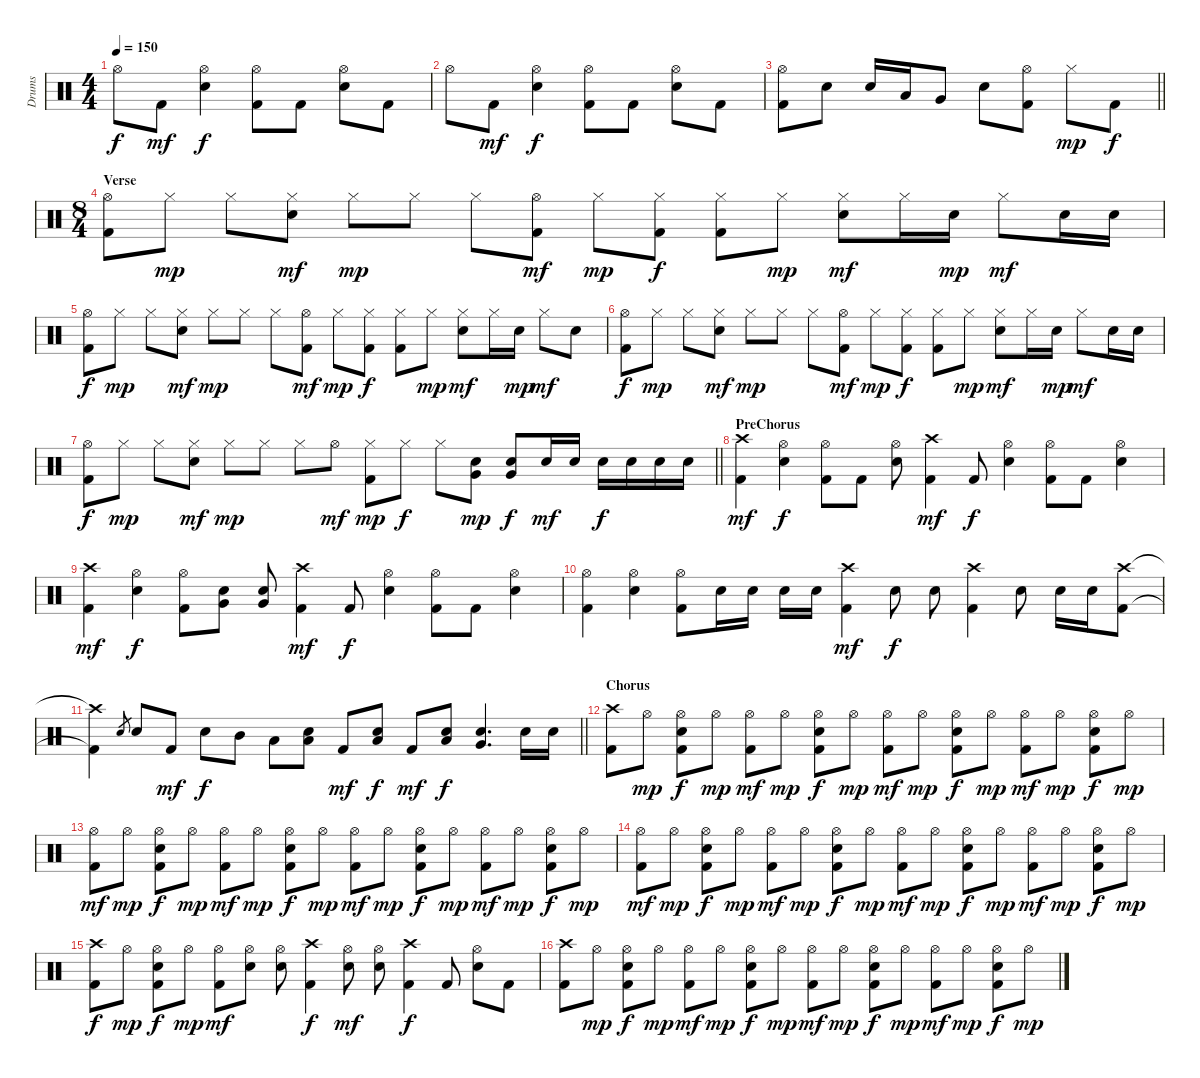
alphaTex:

\track ("Drums" "Drums") {instrument percussion}
\staff {score}
\articulation defaults
\ts (4 4)
\tempo 150
\clef neutral
\ks c "Hi-Hat (open)".8{dy f} "Kick (hit) 2".8{dy mf}
("Hi-Hat (open)" "Electric Snare (hit)").4{dy f} ("Hi-Hat (open)" "Kick (hit) 2").8 "Kick (hit) 2".8 ("Hi-Hat (open)" "Electric Snare (hit)").8 "Kick (hit) 2".8 |
"Hi-Hat (open)".8 "Kick (hit) 2".8{dy mf} ("Hi-Hat (open)" "Electric Snare (hit)").4{dy f} ("Hi-Hat (open)" "Kick (hit) 2").8 "Kick (hit) 2".8 ("Hi-Hat (open)" "Electric Snare (hit)").8 "Kick (hit) 2".8 |
\barLineRight lightlight
("Hi-Hat (open)" "Kick (hit) 2").8 "Electric Snare (hit)".8 "Electric Snare (hit)".16 "Low Tom (hit)".16 "Very Low Tom (hit)".8 "Electric Snare (hit)".8 ("Hi-Hat (open)" "Kick (hit) 2").8 "Hi-Hat (closed)".8{dy mp} "Kick (hit) 2".8{dy f} |
\ts (8 4)
\section ("" "Verse")
("Hi-Hat (open)" "Kick (hit) 2").8 "Hi-Hat (closed)".8{dy mp} "Hi-Hat (closed)".8 ("Hi-Hat (closed)" "Electric Snare (hit)").8{dy mf} "Hi-Hat (closed)".8{dy mp} "Hi-Hat (closed)".8 "Hi-Hat (closed)".8 ("Hi-Hat (open)" "Kick (hit) 2").8{dy mf} "Hi-Hat (closed)".8{dy mp} ("Hi-Hat (closed)" "Kick (hit) 2").8{dy f} ("Hi-Hat (closed)" "Kick (hit) 2").8 "Hi-Hat (closed)".8{dy mp} ("Hi-Hat (closed)" "Electric Snare (hit)").8{dy mf} "Hi-Hat (closed)".16 "Electric Snare (hit)".16{dy mp} "Hi-Hat (closed)".8{dy mf} "Electric Snare (hit)".16 "Electric Snare (hit)".16 |
("Hi-Hat (open)" "Kick (hit) 2").8{dy f} "Hi-Hat (closed)".8{dy mp} "Hi-Hat (closed)".8 ("Hi-Hat (closed)" "Electric Snare (hit)").8{dy mf} "Hi-Hat (closed)".8{dy mp} "Hi-Hat (closed)".8 "Hi-Hat (closed)".8 ("Hi-Hat (open)" "Kick (hit) 2").8{dy mf} "Hi-Hat (closed)".8{dy mp} ("Hi-Hat (closed)" "Kick (hit) 2").8{dy f} ("Hi-Hat (closed)" "Kick (hit) 2").8 "Hi-Hat (closed)".8{dy mp} ("Hi-Hat (closed)" "Electric Snare (hit)").8{dy mf} "Hi-Hat (closed)".16 "Electric Snare (hit)".16{dy mp} "Hi-Hat (closed)".8{dy mf} "Electric Snare (hit)".8 |
("Hi-Hat (open)" "Kick (hit) 2").8{dy f} "Hi-Hat (closed)".8{dy mp} "Hi-Hat (closed)".8 ("Hi-Hat (closed)" "Electric Snare (hit)").8{dy mf} "Hi-Hat (closed)".8{dy mp} "Hi-Hat (closed)".8 "Hi-Hat (closed)".8 ("Hi-Hat (open)" "Kick (hit) 2").8{dy mf} "Hi-Hat (closed)".8{dy mp} ("Hi-Hat (closed)" "Kick (hit) 2").8{dy f} ("Hi-Hat (closed)" "Kick (hit) 2").8 "Hi-Hat (closed)".8{dy mp} ("Hi-Hat (closed)" "Electric Snare (hit)").8{dy mf} "Hi-Hat (closed)".16 "Electric Snare (hit)".16{dy mp} "Hi-Hat (closed)".8{dy mf} "Electric Snare (hit)".16 "Electric Snare (hit)".16 |
\barLineRight lightlight
("Hi-Hat (open)" "Kick (hit) 2").8{dy f} "Hi-Hat (closed)".8{dy mp} "Hi-Hat (closed)".8 ("Hi-Hat (closed)" "Electric Snare (hit)").8{dy mf} "Hi-Hat (closed)".8{dy mp} "Hi-Hat (closed)".8 "Hi-Hat (closed)".8 "Hi-Hat (open)".8{dy mf} ("Hi-Hat (closed)" "Kick (hit) 2").8{dy mp} "Hi-Hat (closed)".8{dy f} "Hi-Hat (closed)".8 ("Electric Snare (hit)" "Very Low Tom (hit)").8{dy mp} ("Electric Snare (hit)" "Very Low Tom (hit)").8{dy f} "Electric Snare (hit)".16{dy mf} "Electric Snare (hit)".16 "Electric Snare (hit)".16{dy f} "Electric Snare (hit)".16 "Electric Snare (hit)".16 "Electric Snare (hit)".16 |
\section ("" "PreChorus")
("Crash high (hit)" "Kick (hit) 2").4{dy mf} ("Hi-Hat (open)" "Electric Snare (hit)").4{dy f} ("Hi-Hat (open)" "Kick (hit) 2").8 "Kick (hit) 2".8 ("Hi-Hat (open)" "Electric Snare (hit)").8 ("Crash high (hit)" "Kick (hit) 2").4{dy mf} "Kick (hit) 2".8{dy f} ("Hi-Hat (open)" "Electric Snare (hit)").4 ("Hi-Hat (open)" "Kick (hit) 2").8 "Kick (hit) 2".8 ("Hi-Hat (open)" "Electric Snare (hit)").4 |
("Crash high (hit)" "Kick (hit) 2").4{dy mf} ("Hi-Hat (open)" "Electric Snare (hit)").4{dy f} ("Hi-Hat (open)" "Kick (hit) 2").8 ("Electric Snare (hit)" "Very Low Tom (hit)").8 ("Electric Snare (hit)" "Very Low Tom (hit)").8 ("Crash high (hit)" "Kick (hit) 2").4{dy mf} "Kick (hit) 2".8{dy f} ("Hi-Hat (open)" "Electric Snare (hit)").4 ("Hi-Hat (open)" "Kick (hit) 2").8 "Kick (hit) 2".8 ("Hi-Hat (open)" "Electric Snare (hit)").4 |
("Hi-Hat (open)" "Kick (hit) 2").4 ("Hi-Hat (open)" "Electric Snare (hit)").4 ("Hi-Hat (open)" "Kick (hit) 2").8 "Electric Snare (hit)".16 "Electric Snare (hit)".16 "Electric Snare (hit)".16 "Electric Snare (hit)".16 ("Crash high (hit)" "Kick (hit) 2").4{dy mf} "Electric Snare (hit)".8{dy f} "Electric Snare (hit)".8 ("Crash high (hit)" "Kick (hit) 2").4 "Electric Snare (hit)".8 "Electric Snare (hit)".16 "Electric Snare (hit)".16 ("Crash high (hit)" "Kick (hit) 2").8 |
\barLineRight lightlight
("Crash high (hit)"{t} "Kick (hit) 2"{t}).4 "Electric Snare (hit)".8{gr} "Electric Snare (hit)".8 "Kick (hit) 2".8{dy mf} "Electric Snare (hit)".8{dy f} "Mid Tom (hit)".8 "Low Tom (hit)".8 ("Electric Snare (hit)" "Low Tom (hit)").8 "Kick (hit) 2".8{dy mf} ("Electric Snare (hit)" "Low Tom (hit)").8{dy f} "Kick (hit) 2".8{dy mf} ("Electric Snare (hit)" "Low Tom (hit)").8{dy f} ("Electric Snare (hit)" "Very Low Tom (hit)").4{d} "Electric Snare (hit)".16 "Electric Snare (hit)".16 |
\section ("" "Chorus")
("Crash high (hit)" "Kick (hit) 2").8 "Hi-Hat (open)".8{dy mp} ("Hi-Hat (open)" "Electric Snare (hit)" "Kick (hit) 2").8{dy f} "Hi-Hat (open)".8{dy mp} ("Hi-Hat (open)" "Kick (hit) 2").8{dy mf} "Hi-Hat (open)".8{dy mp} ("Hi-Hat (open)" "Electric Snare (hit)" "Kick (hit) 2").8{dy f} "Hi-Hat (open)".8{dy mp} ("Hi-Hat (open)" "Kick (hit) 2").8{dy mf} "Hi-Hat (open)".8{dy mp} ("Hi-Hat (open)" "Electric Snare (hit)" "Kick (hit) 2").8{dy f} "Hi-Hat (open)".8{dy mp} ("Hi-Hat (open)" "Kick (hit) 2").8{dy mf} "Hi-Hat (open)".8{dy mp} ("Hi-Hat (open)" "Electric Snare (hit)" "Kick (hit) 2").8{dy f} "Hi-Hat (open)".8{dy mp} |
("Hi-Hat (open)" "Kick (hit) 2").8{dy mf} "Hi-Hat (open)".8{dy mp} ("Hi-Hat (open)" "Electric Snare (hit)" "Kick (hit) 2").8{dy f} "Hi-Hat (open)".8{dy mp} ("Hi-Hat (open)" "Kick (hit) 2").8{dy mf} "Hi-Hat (open)".8{dy mp} ("Hi-Hat (open)" "Electric Snare (hit)" "Kick (hit) 2").8{dy f} "Hi-Hat (open)".8{dy mp} ("Hi-Hat (open)" "Kick (hit) 2").8{dy mf} "Hi-Hat (open)".8{dy mp} ("Hi-Hat (open)" "Electric Snare (hit)" "Kick (hit) 2").8{dy f} "Hi-Hat (open)".8{dy mp} ("Hi-Hat (open)" "Kick (hit) 2").8{dy mf} "Hi-Hat (open)".8{dy mp} ("Hi-Hat (open)" "Electric Snare (hit)" "Kick (hit) 2").8{dy f} "Hi-Hat (open)".8{dy mp} |
("Hi-Hat (open)" "Kick (hit) 2").8{dy mf} "Hi-Hat (open)".8{dy mp} ("Hi-Hat (open)" "Electric Snare (hit)" "Kick (hit) 2").8{dy f} "Hi-Hat (open)".8{dy mp} ("Hi-Hat (open)" "Kick (hit) 2").8{dy mf} "Hi-Hat (open)".8{dy mp} ("Hi-Hat (open)" "Electric Snare (hit)" "Kick (hit) 2").8{dy f} "Hi-Hat (open)".8{dy mp} ("Hi-Hat (open)" "Kick (hit) 2").8{dy mf} "Hi-Hat (open)".8{dy mp} ("Hi-Hat (open)" "Electric Snare (hit)" "Kick (hit) 2").8{dy f} "Hi-Hat (open)".8{dy mp} ("Hi-Hat (open)" "Kick (hit) 2").8{dy mf} "Hi-Hat (open)".8{dy mp} ("Hi-Hat (open)" "Electric Snare (hit)" "Kick (hit) 2").8{dy f} "Hi-Hat (open)".8{dy mp} |
("Crash high (hit)" "Kick (hit) 2").8{dy f} "Hi-Hat (open)".8{dy mp} ("Hi-Hat (open)" "Electric Snare (hit)" "Kick (hit) 2").8{dy f} "Hi-Hat (open)".8{dy mp} ("Hi-Hat (open)" "Kick (hit) 2").8{dy mf} ("Hi-Hat (open)" "Electric Snare (hit)").8 ("Hi-Hat (open)" "Electric Snare (hit)").8 ("Crash high (hit)" "Kick (hit) 2").4{dy f} ("Hi-Hat (open)" "Electric Snare (hit)").8{dy mf} ("Hi-Hat (open)" "Electric Snare (hit)").8 ("Crash high (hit)" "Kick (hit) 2").4{dy f} "Kick (hit) 2".8 ("Hi-Hat (open)" "Electric Snare (hit)").8 "Kick (hit) 2".8 |
("Crash high (hit)" "Kick (hit) 2").8 "Hi-Hat (open)".8{dy mp} ("Hi-Hat (open)" "Electric Snare (hit)" "Kick (hit) 2").8{dy f} "Hi-Hat (open)".8{dy mp} ("Hi-Hat (open)" "Kick (hit) 2").8{dy mf} "Hi-Hat (open)".8{dy mp} ("Hi-Hat (open)" "Electric Snare (hit)" "Kick (hit) 2").8{dy f} "Hi-Hat (open)".8{dy mp} ("Hi-Hat (open)" "Kick (hit) 2").8{dy mf} "Hi-Hat (open)".8{dy mp} ("Hi-Hat (open)" "Electric Snare (hit)" "Kick (hit) 2").8{dy f} "Hi-Hat (open)".8{dy mp} ("Hi-Hat (open)" "Kick (hit) 2").8{dy mf} "Hi-Hat (open)".8{dy mp} ("Hi-Hat (open)" "Electric Snare (hit)" "Kick (hit) 2").8{dy f} "Hi-Hat (open)".8{dy mp}
